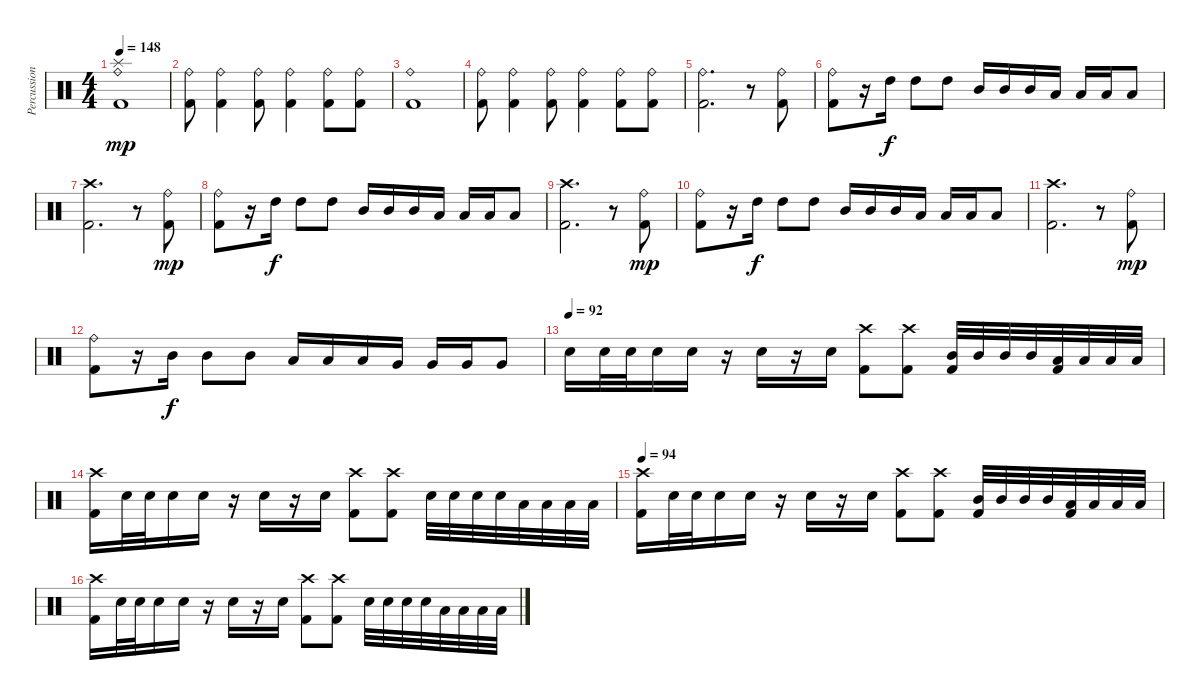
\track ("Percussion" "Percussion") {solo instrument percussion}
\staff {score}
\articulation defaults
\ts (4 4)
\tempo 148
\clef neutral
\ks c
("Ride (bell)" "Splash (hit)" "Kick (hit) 2").1{dy mp} |
("Ride (bell)" "Kick (hit) 2").8 ("Ride (bell)" "Kick (hit) 2").4 ("Ride (bell)" "Kick (hit) 2").8 ("Ride (bell)" "Kick (hit) 2").4 ("Ride (bell)" "Kick (hit) 2").8 ("Ride (bell)" "Kick (hit) 2").8 |
("Ride (bell)" "Kick (hit) 2").1 |
("Ride (bell)" "Kick (hit) 2").8 ("Ride (bell)" "Kick (hit) 2").4 ("Ride (bell)" "Kick (hit) 2").8 ("Ride (bell)" "Kick (hit) 2").4 ("Ride (bell)" "Kick (hit) 2").8 ("Ride (bell)" "Kick (hit) 2").8 |
("Ride (bell)" "Kick (hit) 2").2{d} r.8 ("Ride (bell)" "Kick (hit) 2").8 |
("Ride (bell)" "Kick (hit) 2").8 r.16 "High Tom (hit)".16{dy f} "High Tom (hit)".8 "High Tom (hit)".8 "Mid Tom (hit)".16 "Mid Tom (hit)".16 "Mid Tom (hit)".16 "Low Tom (hit)".16 "Low Tom (hit)".16 "Low Tom (hit)".16 "Low Tom (hit)".8 |
("Crash high (hit)" "Kick (hit) 2").2{d} r.8 ("Ride (bell)" "Kick (hit) 2").8{dy mp} |
("Ride (bell)" "Kick (hit) 2").8 r.16 "High Tom (hit)".16{dy f} "High Tom (hit)".8 "High Tom (hit)".8 "Mid Tom (hit)".16 "Mid Tom (hit)".16 "Mid Tom (hit)".16 "Low Tom (hit)".16 "Low Tom (hit)".16 "Low Tom (hit)".16 "Low Tom (hit)".8 |
("Crash high (hit)" "Kick (hit) 2").2{d} r.8 ("Ride (bell)" "Kick (hit) 2").8{dy mp} |
("Ride (bell)" "Kick (hit) 2").8 r.16 "High Tom (hit)".16{dy f} "High Tom (hit)".8 "High Tom (hit)".8 "Mid Tom (hit)".16 "Mid Tom (hit)".16 "Mid Tom (hit)".16 "Low Tom (hit)".16 "Low Tom (hit)".16 "Low Tom (hit)".16 "Low Tom (hit)".8 |
("Crash high (hit)" "Kick (hit) 2").2{d} r.8 ("Ride (bell)" "Kick (hit) 2").8{dy mp} |
("Ride (bell)" "Kick (hit) 2").8 r.16 "Mid Tom (hit)".16{dy f} "Mid Tom (hit)".8 "Mid Tom (hit)".8 "Low Tom (hit)".16 "Low Tom (hit)".16 "Low Tom (hit)".16 "Very Low Tom (hit)".16 "Very Low Tom (hit)".16 "Very Low Tom (hit)".16 "Very Low Tom (hit)".8 |
\tempo (92)
"Snare (hit) 2".16 "Snare (hit) 2".32 "Snare (hit) 2".32 "Snare (hit) 2".16 "Snare (hit) 2".16 r.16 "Snare (hit) 2".16 r.16 "Snare (hit) 2".16 ("Crash high (hit)" "Kick (hit) 2").8 ("Crash high (hit)" "Kick (hit) 2").8 ("Mid Tom (hit)" "Kick (hit) 2").32 "Mid Tom (hit)".32 "Mid Tom (hit)".32 "Mid Tom (hit)".32 ("Low Tom (hit)" "Kick (hit) 2").32 "Low Tom (hit)".32 "Low Tom (hit)".32 "Low Tom (hit)".32 |
("Crash high (hit)" "Kick (hit) 2").16 "Snare (hit) 2".32 "Snare (hit) 2".32 "Snare (hit) 2".16 "Snare (hit) 2".16 r.16 "Snare (hit) 2".16 r.16 "Snare (hit) 2".16 ("Crash high (hit)" "Kick (hit) 2").8 ("Crash high (hit)" "Kick (hit) 2").8 "Snare (hit) 2".32 "Snare (hit) 2".32 "Snare (hit) 2".32 "Snare (hit) 2".32 "Low Tom (hit)".32 "Low Tom (hit)".32 "Low Tom (hit)".32 "Low Tom (hit)".32 |
\tempo 94
("Crash high (hit)" "Kick (hit) 2").16 "Snare (hit) 2".32 "Snare (hit) 2".32 "Snare (hit) 2".16 "Snare (hit) 2".16 r.16 "Snare (hit) 2".16 r.16 "Snare (hit) 2".16 ("Crash high (hit)" "Kick (hit) 2").8 ("Crash high (hit)" "Kick (hit) 2").8 ("Mid Tom (hit)" "Kick (hit) 2").32 "Mid Tom (hit)".32 "Mid Tom (hit)".32 "Mid Tom (hit)".32 ("Low Tom (hit)" "Kick (hit) 2").32 "Low Tom (hit)".32 "Low Tom (hit)".32 "Low Tom (hit)".32 |
("Crash high (hit)" "Kick (hit) 2").16 "Snare (hit) 2".32 "Snare (hit) 2".32 "Snare (hit) 2".16 "Snare (hit) 2".16 r.16 "Snare (hit) 2".16 r.16 "Snare (hit) 2".16 ("Crash high (hit)" "Kick (hit) 2").8 ("Crash high (hit)" "Kick (hit) 2").8 "Snare (hit) 2".32 "Snare (hit) 2".32 "Snare (hit) 2".32 "Snare (hit) 2".32 "Low Tom (hit)".32 "Low Tom (hit)".32 "Low Tom (hit)".32 "Low Tom (hit)".32
